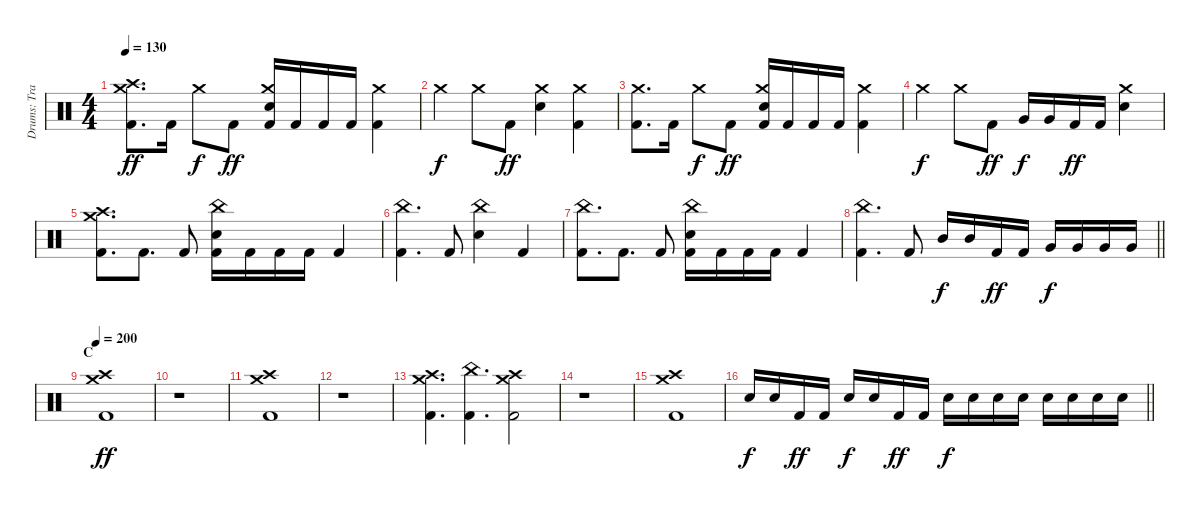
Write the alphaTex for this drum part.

\track ("Drums: Travis Clarke" "Drums: Tra") {instrument percussion}
\staff {score}
\articulation defaults
\ts (4 4)
\tempo 130
\clef neutral
\ks c
("Kick (hit) 2" "Crash high (hit)" "Crash medium (hit)").8{d dy ff} "Kick (hit) 2".16 "Crash medium (hit)".8{dy f} "Kick (hit) 2".8{dy ff} ("Kick (hit) 2" "Snare (hit) 2" "Crash medium (hit)").16 "Kick (hit) 2".16 "Kick (hit) 2".16 "Kick (hit) 2".16 ("Kick (hit) 2" "Crash medium (hit)").4 |
"Crash medium (hit)".4{dy f} "Crash medium (hit)".8 "Kick (hit) 2".8{dy ff} ("Snare (hit) 2" "Crash medium (hit)").4 ("Kick (hit) 2" "Crash medium (hit)").4 |
("Kick (hit) 2" "Crash medium (hit)").8{d} "Kick (hit) 2".16 "Crash medium (hit)".8{dy f} "Kick (hit) 2".8{dy ff} ("Kick (hit) 2" "Snare (hit) 2" "Crash medium (hit)").16 "Kick (hit) 2".16 "Kick (hit) 2".16 "Kick (hit) 2".16 ("Kick (hit) 2" "Crash medium (hit)").4 |
"Crash medium (hit)".4{dy f} "Crash medium (hit)".8 "Kick (hit) 2".8{dy ff} "Very Low Tom (hit)".16{dy f} "Very Low Tom (hit)".16 "Kick (hit) 2".16{dy ff} "Kick (hit) 2".16 ("Snare (hit) 2" "Crash medium (hit)").4 |
("Kick (hit) 2" "Crash high (hit)" "Crash medium (hit)").8{d} "Kick (hit) 2".8{d} "Kick (hit) 2".8 ("Kick (hit) 2" "Snare (hit) 2" "China (hit)").16 "Kick (hit) 2".16 "Kick (hit) 2".16 "Kick (hit) 2".16 "Kick (hit) 2".4 |
("Kick (hit) 2" "China (hit)").4{d} "Kick (hit) 2".8 ("Snare (hit) 2" "China (hit)").4 "Kick (hit) 2".4 |
("Kick (hit) 2" "China (hit)").8{d} "Kick (hit) 2".8{d} "Kick (hit) 2".8 ("Kick (hit) 2" "Snare (hit) 2" "China (hit)").16 "Kick (hit) 2".16 "Kick (hit) 2".16 "Kick (hit) 2".16 "Kick (hit) 2".4 |
\barLineRight lightlight
("Kick (hit) 2" "China (hit)").4{d} "Kick (hit) 2".8 "Mid Tom (hit)".16{dy f} "Mid Tom (hit)".16 "Kick (hit) 2".16{dy ff} "Kick (hit) 2".16 "Very Low Tom (hit)".16{dy f} "Very Low Tom (hit)".16 "Very Low Tom (hit)".16 "Very Low Tom (hit)".16 |
\section ("" "C")
\tempo 200
("Kick (hit) 2" "Crash high (hit)" "Crash medium (hit)").1{dy ff} |
r.1 |
("Kick (hit) 2" "Crash high (hit)" "Crash medium (hit)").1 |
r.1 |
("Kick (hit) 2" "Crash high (hit)" "Crash medium (hit)").4{d} ("Kick (hit) 2" "China (hit)").4{d} ("Kick (hit) 2" "Crash high (hit)" "Crash medium (hit)").2 |
r.1 |
("Kick (hit) 2" "Crash high (hit)" "Crash medium (hit)").1 |
\barLineRight lightlight "Snare (hit) 2".16{dy f} "Snare (hit) 2".16 "Kick (hit) 2".16{dy ff} "Kick (hit) 2".16 "Snare (hit) 2".16{dy f} "Snare (hit) 2".16 "Kick (hit) 2".16{dy ff} "Kick (hit) 2".16 "Snare (hit) 2".16{dy f} "Snare (hit) 2".16 "Snare (hit) 2".16 "Snare (hit) 2".16 "Snare (hit) 2".16 "Snare (hit) 2".16 "Snare (hit) 2".16 "Snare (hit) 2".16
